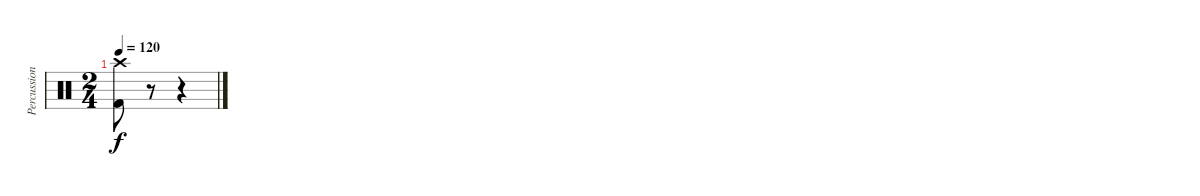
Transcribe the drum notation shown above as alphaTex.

\track ("Percussion" "Percussion") {instrument percussion}
\staff {score}
\articulation defaults
\ts (2 4)
\tempo 120
\clef neutral
\ks c
("Crash high (hit)" "Kick (hit) 2").8{dy f} r.8 r.4
